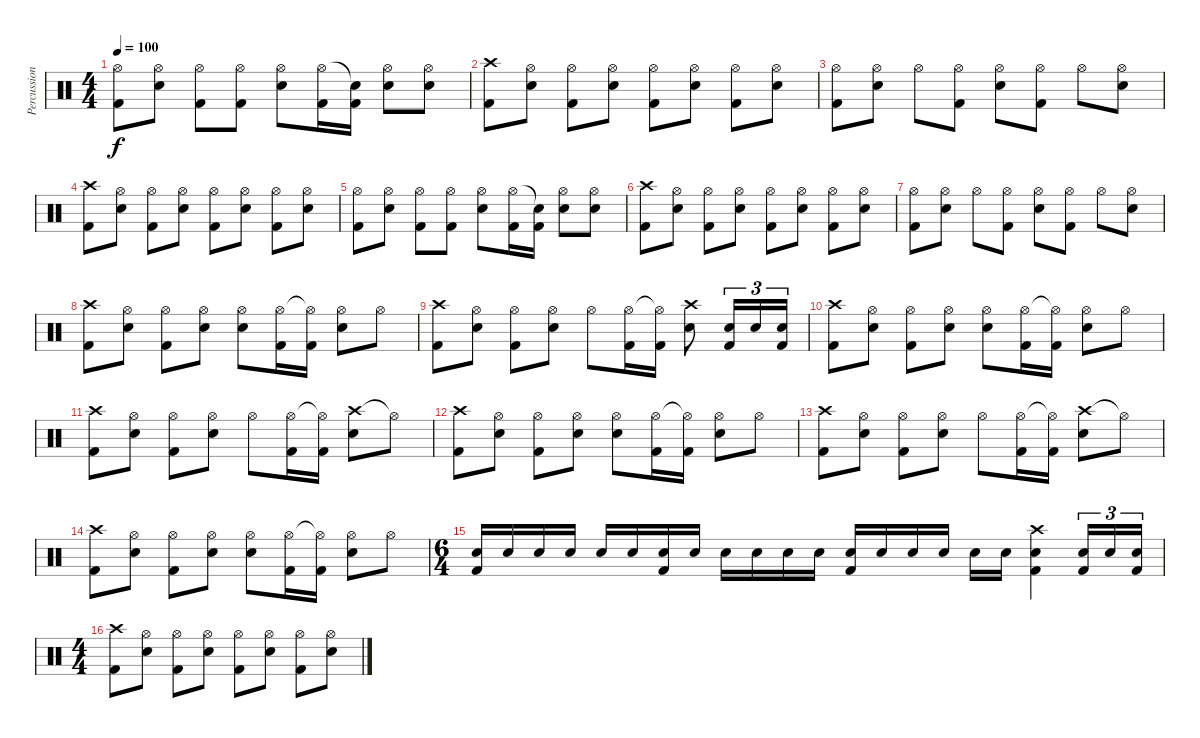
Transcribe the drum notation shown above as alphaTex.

\track ("Percussions" "Percussion") {instrument percussion}
\staff {score}
\articulation defaults
\ts (4 4)
\tempo 100
\clef neutral
\ks c
("Hi-Hat (open)" "Kick (hit) 2").8{dy f} ("Hi-Hat (open)" "Snare (hit) 2").8 ("Hi-Hat (open)" "Kick (hit) 2").8 ("Hi-Hat (open)" "Kick (hit) 2").8 ("Hi-Hat (open)" "Snare (hit) 2").8 ("Hi-Hat (open)" "Kick (hit) 2").16 ("Snare (hit)"{t} "Kick (hit) 2").16 ("Hi-Hat (open)" "Snare (hit) 2").8 ("Hi-Hat (open)" "Snare (hit) 2").8 |
("Crash high (hit)" "Kick (hit) 2").8 ("Hi-Hat (open)" "Snare (hit) 2").8 ("Hi-Hat (open)" "Kick (hit) 2").8 ("Hi-Hat (open)" "Snare (hit) 2").8 ("Hi-Hat (open)" "Kick (hit) 2").8 ("Hi-Hat (open)" "Snare (hit) 2").8 ("Hi-Hat (open)" "Kick (hit) 2").8 ("Hi-Hat (open)" "Snare (hit) 2").8 |
("Hi-Hat (open)" "Kick (hit) 2").8 ("Hi-Hat (open)" "Snare (hit) 2").8 "Hi-Hat (open)".8 ("Hi-Hat (open)" "Kick (hit) 2").8 ("Hi-Hat (open)" "Snare (hit) 2").8 ("Hi-Hat (open)" "Kick (hit) 2").8 "Hi-Hat (open)".8 ("Hi-Hat (open)" "Snare (hit) 2").8 |
("Crash high (hit)" "Kick (hit) 2").8 ("Hi-Hat (open)" "Snare (hit) 2").8 ("Hi-Hat (open)" "Kick (hit) 2").8 ("Hi-Hat (open)" "Snare (hit) 2").8 ("Hi-Hat (open)" "Kick (hit) 2").8 ("Hi-Hat (open)" "Snare (hit) 2").8 ("Hi-Hat (open)" "Kick (hit) 2").8 ("Hi-Hat (open)" "Snare (hit) 2").8 |
("Hi-Hat (open)" "Kick (hit) 2").8 ("Hi-Hat (open)" "Snare (hit) 2").8 ("Hi-Hat (open)" "Kick (hit) 2").8 ("Hi-Hat (open)" "Kick (hit) 2").8 ("Hi-Hat (open)" "Snare (hit) 2").8 ("Hi-Hat (open)" "Kick (hit) 2").16 ("Snare (hit)"{t} "Kick (hit) 2").16 ("Hi-Hat (open)" "Snare (hit) 2").8 ("Hi-Hat (open)" "Snare (hit) 2").8 |
("Crash high (hit)" "Kick (hit) 2").8 ("Hi-Hat (open)" "Snare (hit) 2").8 ("Hi-Hat (open)" "Kick (hit) 2").8 ("Hi-Hat (open)" "Snare (hit) 2").8 ("Hi-Hat (open)" "Kick (hit) 2").8 ("Hi-Hat (open)" "Snare (hit) 2").8 ("Hi-Hat (open)" "Kick (hit) 2").8 ("Hi-Hat (open)" "Snare (hit) 2").8 |
("Hi-Hat (open)" "Kick (hit) 2").8 ("Hi-Hat (open)" "Snare (hit) 2").8 "Hi-Hat (open)".8 ("Hi-Hat (open)" "Kick (hit) 2").8 ("Hi-Hat (open)" "Snare (hit) 2").8 ("Hi-Hat (open)" "Kick (hit) 2").8 "Hi-Hat (open)".8 ("Hi-Hat (open)" "Snare (hit) 2").8 |
("Crash high (hit)" "Kick (hit) 2").8 ("Hi-Hat (open)" "Snare (hit) 2").8 ("Hi-Hat (open)" "Kick (hit) 2").8 ("Hi-Hat (open)" "Snare (hit) 2").8 ("Hi-Hat (open)" "Snare (hit) 2").8 ("Hi-Hat (open)" "Kick (hit) 2").16 ("Hi-Hat (open)"{t} "Kick (hit) 2").16 ("Hi-Hat (open)" "Snare (hit) 2").8 "Hi-Hat (open)".8 |
("Crash high (hit)" "Kick (hit) 2").8 ("Hi-Hat (open)" "Snare (hit) 2").8 ("Hi-Hat (open)" "Kick (hit) 2").8 ("Hi-Hat (open)" "Snare (hit) 2").8 "Hi-Hat (open)".8 ("Hi-Hat (open)" "Kick (hit) 2").16 ("Hi-Hat (open)"{t} "Kick (hit) 2").16 ("Crash high (hit)" "Snare (hit) 2").8 ("Snare (hit) 2" "Kick (hit) 2").16{tu (3 2)} "Snare (hit) 2".16{tu (3 2)} ("Snare (hit) 2" "Kick (hit) 2").16{tu (3 2)} |
("Crash high (hit)" "Kick (hit) 2").8 ("Hi-Hat (open)" "Snare (hit) 2").8 ("Hi-Hat (open)" "Kick (hit) 2").8 ("Hi-Hat (open)" "Snare (hit) 2").8 ("Hi-Hat (open)" "Snare (hit) 2").8 ("Hi-Hat (open)" "Kick (hit) 2").16 ("Hi-Hat (open)"{t} "Kick (hit) 2").16 ("Hi-Hat (open)" "Snare (hit) 2").8 "Hi-Hat (open)".8 |
("Crash high (hit)" "Kick (hit) 2").8 ("Hi-Hat (open)" "Snare (hit) 2").8 ("Hi-Hat (open)" "Kick (hit) 2").8 ("Hi-Hat (open)" "Snare (hit) 2").8 "Hi-Hat (open)".8 ("Hi-Hat (open)" "Kick (hit) 2").16 ("Hi-Hat (open)"{t} "Kick (hit) 2").16 ("Crash high (hit)" "Snare (hit) 2").8 "Hi-Hat (open)"{t}.8 |
("Crash high (hit)" "Kick (hit) 2").8 ("Hi-Hat (open)" "Snare (hit) 2").8 ("Hi-Hat (open)" "Kick (hit) 2").8 ("Hi-Hat (open)" "Snare (hit) 2").8 ("Hi-Hat (open)" "Snare (hit) 2").8 ("Hi-Hat (open)" "Kick (hit) 2").16 ("Hi-Hat (open)"{t} "Kick (hit) 2").16 ("Hi-Hat (open)" "Snare (hit) 2").8 "Hi-Hat (open)".8 |
("Crash high (hit)" "Kick (hit) 2").8 ("Hi-Hat (open)" "Snare (hit) 2").8 ("Hi-Hat (open)" "Kick (hit) 2").8 ("Hi-Hat (open)" "Snare (hit) 2").8 "Hi-Hat (open)".8 ("Hi-Hat (open)" "Kick (hit) 2").16 ("Hi-Hat (open)"{t} "Kick (hit) 2").16 ("Crash high (hit)" "Snare (hit) 2").8 "Hi-Hat (open)"{t}.8 |
("Crash high (hit)" "Kick (hit) 2").8 ("Hi-Hat (open)" "Snare (hit) 2").8 ("Hi-Hat (open)" "Kick (hit) 2").8 ("Hi-Hat (open)" "Snare (hit) 2").8 ("Hi-Hat (open)" "Snare (hit) 2").8 ("Hi-Hat (open)" "Kick (hit) 2").16 ("Hi-Hat (open)"{t} "Kick (hit) 2").16 ("Hi-Hat (open)" "Snare (hit) 2").8 "Hi-Hat (open)".8 |
\ts (6 4)
("Snare (hit) 2" "Kick (hit) 2").16 "Snare (hit) 2".16 "Snare (hit) 2".16 "Snare (hit) 2".16 "Snare (hit) 2".16 "Snare (hit) 2".16 ("Snare (hit) 2" "Kick (hit) 2").16 "Snare (hit) 2".16 "Snare (hit) 2".16 "Snare (hit) 2".16 "Snare (hit) 2".16 "Snare (hit) 2".16 ("Snare (hit) 2" "Kick (hit) 2").16 "Snare (hit) 2".16 "Snare (hit) 2".16 "Snare (hit) 2".16 "Snare (hit) 2".16 "Snare (hit) 2".16 ("Crash high (hit)" "Snare (hit) 2" "Kick (hit) 2").4 ("Snare (hit) 2" "Kick (hit) 2").16{tu (3 2)} "Snare (hit) 2".16{tu (3 2)} ("Snare (hit) 2" "Kick (hit) 2").16{tu (3 2)} |
\ts (4 4)
("Crash high (hit)" "Kick (hit) 2").8 ("Hi-Hat (open)" "Snare (hit) 2").8 ("Hi-Hat (open)" "Kick (hit) 2").8 ("Hi-Hat (open)" "Snare (hit) 2").8 ("Hi-Hat (open)" "Kick (hit) 2").8 ("Hi-Hat (open)" "Snare (hit) 2").8 ("Hi-Hat (open)" "Kick (hit) 2").8 ("Hi-Hat (open)" "Snare (hit) 2").8
